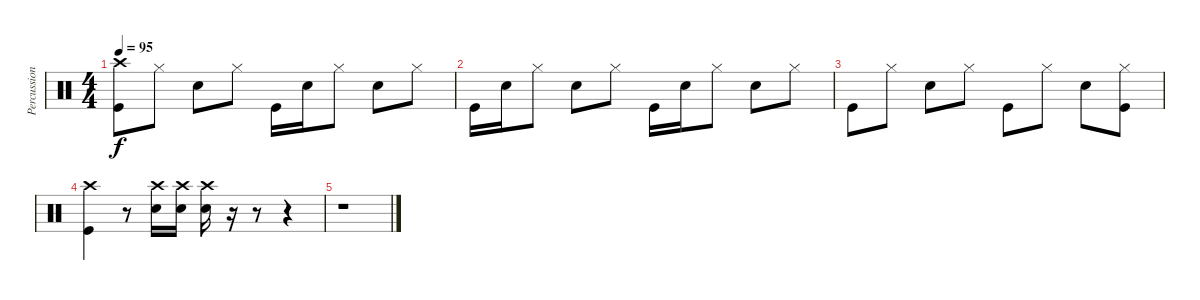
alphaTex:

\track ("Percussion" "Percussion") {instrument percussion}
\staff {score}
\articulation defaults
\ts (4 4)
\tempo 95
\clef neutral
\ks c
("Kick (hit)" "Crash high (hit)").8{dy f} "Hi-Hat (closed)".8 "Snare (hit) 2".8 "Hi-Hat (closed)".8 "Kick (hit)".16 "Snare (hit) 2".16 "Hi-Hat (closed)".8 "Snare (hit) 2".8 "Hi-Hat (closed)".8 |
"Kick (hit)".16 "Snare (hit) 2".16 "Hi-Hat (closed)".8 "Snare (hit) 2".8 "Hi-Hat (closed)".8 "Kick (hit)".16 "Snare (hit) 2".16 "Hi-Hat (closed)".8 "Snare (hit) 2".8 "Hi-Hat (closed)".8 |
"Kick (hit)".8 "Hi-Hat (closed)".8 "Snare (hit) 2".8 "Hi-Hat (closed)".8 "Kick (hit)".8 "Hi-Hat (closed)".8 "Snare (hit) 2".8 ("Kick (hit)" "Hi-Hat (closed)").8 |
("Kick (hit)" "Crash high (hit)").4 r.8 ("Crash high (hit)" "Snare (hit) 2").16 ("Crash high (hit)" "Snare (hit) 2").16 ("Crash high (hit)" "Snare (hit) 2").16 r.16 r.8 r.4 |
r.1
